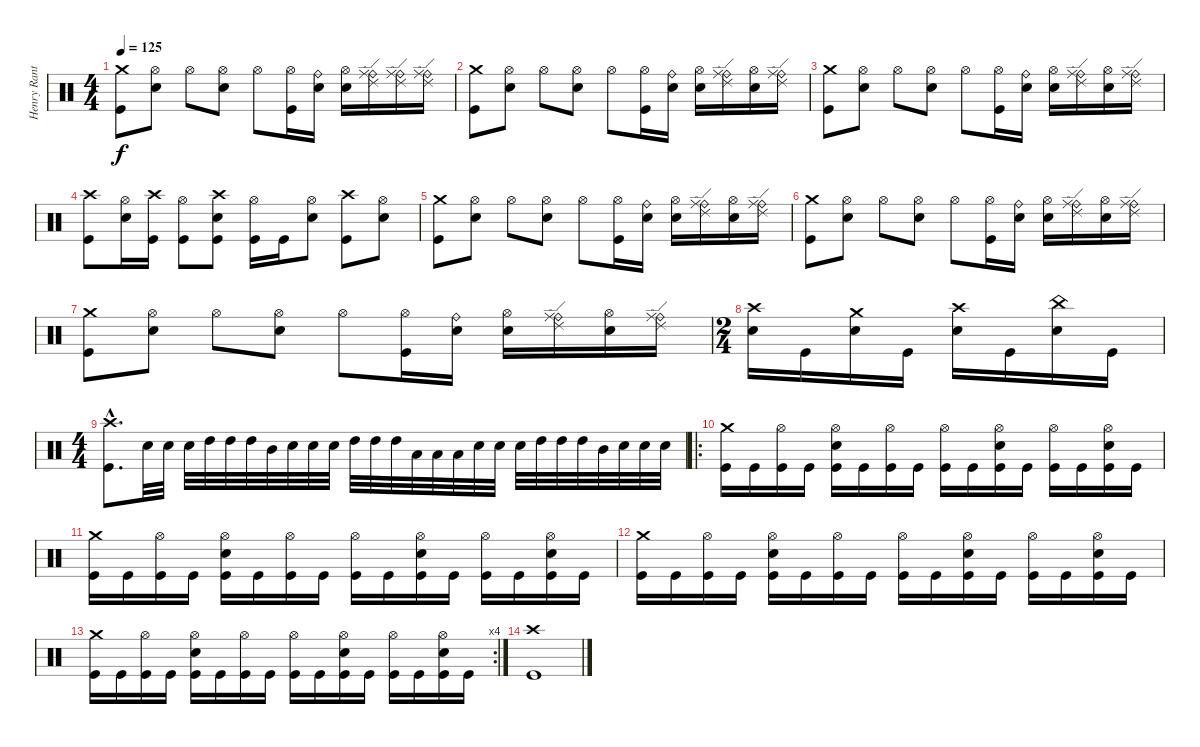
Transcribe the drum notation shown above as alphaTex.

\track ("Henry Ranta" "Henry Rant") {instrument percussion}
\staff {score}
\articulation defaults
\ts (4 4)
\tempo 125
\clef neutral
\ks c
("Crash medium (hit)" "Kick (hit)").8{dy f} ("Hi-Hat (open)" "Electric Snare (hit)").8 "Hi-Hat (open)".8 ("Hi-Hat (open)" "Electric Snare (hit)").8 "Hi-Hat (open)".8 ("Hi-Hat (open)" "Kick (hit)").16 ("Ride (bell)" "Electric Snare (hit)").16 ("Hi-Hat (open)" "Electric Snare (hit)").16 ("Ride (edge) 2" "Ride (bell)" "Ride (middle)").16 ("Ride (edge) 2" "Ride (bell)" "Ride (middle)").16 ("Ride (edge) 2" "Ride (bell)" "Ride (middle)").16 |
("Crash medium (hit)" "Kick (hit)").8 ("Hi-Hat (open)" "Electric Snare (hit)").8 "Hi-Hat (open)".8 ("Hi-Hat (open)" "Electric Snare (hit)").8 "Hi-Hat (open)".8 ("Hi-Hat (open)" "Kick (hit)").16 ("Ride (bell)" "Electric Snare (hit)").16 ("Hi-Hat (open)" "Electric Snare (hit)").16 ("Ride (edge) 2" "Ride (bell)" "Ride (middle)").16 ("Hi-Hat (open)" "Electric Snare (hit)").16 ("Ride (edge) 2" "Ride (bell)" "Ride (middle)").16 |
("Crash medium (hit)" "Kick (hit)").8 ("Hi-Hat (open)" "Electric Snare (hit)").8 "Hi-Hat (open)".8 ("Hi-Hat (open)" "Electric Snare (hit)").8 "Hi-Hat (open)".8 ("Hi-Hat (open)" "Kick (hit)").16 ("Ride (bell)" "Electric Snare (hit)").16 ("Hi-Hat (open)" "Electric Snare (hit)").16 ("Ride (edge) 2" "Ride (bell)" "Ride (middle)").16 ("Hi-Hat (open)" "Electric Snare (hit)").16 ("Ride (edge) 2" "Ride (bell)" "Ride (middle)").16 |
("Crash high (hit)" "Kick (hit)").8 ("Hi-Hat (open)" "Electric Snare (hit)").16 ("Crash high (hit)" "Kick (hit)").16 ("Hi-Hat (open)" "Kick (hit)").8 ("Crash high (hit)" "Electric Snare (hit)" "Kick (hit)").8 ("Hi-Hat (open)" "Kick (hit)").16 "Kick (hit)".16 ("Hi-Hat (open)" "Electric Snare (hit)").8 ("Crash high (hit)" "Kick (hit)").8 ("Hi-Hat (open)" "Electric Snare (hit)").8 |
("Crash medium (hit)" "Kick (hit)").8 ("Hi-Hat (open)" "Electric Snare (hit)").8 "Hi-Hat (open)".8 ("Hi-Hat (open)" "Electric Snare (hit)").8 "Hi-Hat (open)".8 ("Hi-Hat (open)" "Kick (hit)").16 ("Ride (bell)" "Electric Snare (hit)").16 ("Hi-Hat (open)" "Electric Snare (hit)").16 ("Ride (edge) 2" "Ride (bell)" "Ride (middle)").16 ("Hi-Hat (open)" "Electric Snare (hit)").16 ("Ride (edge) 2" "Ride (bell)" "Ride (middle)").16 |
("Crash medium (hit)" "Kick (hit)").8 ("Hi-Hat (open)" "Electric Snare (hit)").8 "Hi-Hat (open)".8 ("Hi-Hat (open)" "Electric Snare (hit)").8 "Hi-Hat (open)".8 ("Hi-Hat (open)" "Kick (hit)").16 ("Ride (bell)" "Electric Snare (hit)").16 ("Hi-Hat (open)" "Electric Snare (hit)").16 ("Ride (edge) 2" "Ride (bell)" "Ride (middle)").16 ("Hi-Hat (open)" "Electric Snare (hit)").16 ("Ride (edge) 2" "Ride (bell)" "Ride (middle)").16 |
("Crash medium (hit)" "Kick (hit)").8 ("Hi-Hat (open)" "Electric Snare (hit)").8 "Hi-Hat (open)".8 ("Hi-Hat (open)" "Electric Snare (hit)").8 "Hi-Hat (open)".8 ("Hi-Hat (open)" "Kick (hit)").16 ("Ride (bell)" "Electric Snare (hit)").16 ("Hi-Hat (open)" "Electric Snare (hit)").16 ("Ride (edge) 2" "Ride (bell)" "Ride (middle)").16 ("Hi-Hat (open)" "Electric Snare (hit)").16 ("Ride (edge) 2" "Ride (bell)" "Ride (middle)").16 |
\ts (2 4)
("Crash high (hit)" "Electric Snare (hit)").16 "Kick (hit)".16 ("Crash medium (hit)" "Electric Snare (hit)").16 "Kick (hit)".16 ("Crash high (hit)" "Electric Snare (hit)").16 "Kick (hit)".16 ("China (hit)" "Electric Snare (hit)").16 "Kick (hit)".16 |
\ts (4 4)
("Crash high (hit)"{hac} "Kick (hit)"{hac}).8{d} "Electric Snare (hit)".32 "Electric Snare (hit)".32 "Electric Snare (hit)".32 "High Tom (hit)".32 "High Tom (hit)".32 "High Tom (hit)".32 "Mid Tom (hit)".32 "Electric Snare (hit)".32 "Electric Snare (hit)".32 "Electric Snare (hit)".32 "High Tom (hit)".32 "High Tom (hit)".32 "High Tom (hit)".32 "Low Tom (hit)".32 "Low Tom (hit)".32 "Low Tom (hit)".32 "Electric Snare (hit)".32 "Electric Snare (hit)".32 "Electric Snare (hit)".32 "High Tom (hit)".32 "High Tom (hit)".32 "High Tom (hit)".32 "Mid Tom (hit)".32 "Electric Snare (hit)".32 "Electric Snare (hit)".32 "Electric Snare (hit)".32 |
\ro
("Crash medium (hit)" "Kick (hit)").16 "Kick (hit)".16 ("Hi-Hat (open)" "Kick (hit)").16 "Kick (hit)".16 ("Hi-Hat (open)" "Electric Snare (hit)" "Kick (hit)").16 "Kick (hit)".16 ("Hi-Hat (open)" "Kick (hit)").16 "Kick (hit)".16 ("Hi-Hat (open)" "Kick (hit)").16 "Kick (hit)".16 ("Hi-Hat (open)" "Electric Snare (hit)" "Kick (hit)").16 "Kick (hit)".16 ("Hi-Hat (open)" "Kick (hit)").16 "Kick (hit)".16 ("Hi-Hat (open)" "Electric Snare (hit)" "Kick (hit)").16 "Kick (hit)".16 |
("Crash medium (hit)" "Kick (hit)").16 "Kick (hit)".16 ("Hi-Hat (open)" "Kick (hit)").16 "Kick (hit)".16 ("Hi-Hat (open)" "Electric Snare (hit)" "Kick (hit)").16 "Kick (hit)".16 ("Hi-Hat (open)" "Kick (hit)").16 "Kick (hit)".16 ("Hi-Hat (open)" "Kick (hit)").16 "Kick (hit)".16 ("Hi-Hat (open)" "Electric Snare (hit)" "Kick (hit)").16 "Kick (hit)".16 ("Hi-Hat (open)" "Kick (hit)").16 "Kick (hit)".16 ("Hi-Hat (open)" "Electric Snare (hit)" "Kick (hit)").16 "Kick (hit)".16 |
("Crash medium (hit)" "Kick (hit)").16 "Kick (hit)".16 ("Hi-Hat (open)" "Kick (hit)").16 "Kick (hit)".16 ("Hi-Hat (open)" "Electric Snare (hit)" "Kick (hit)").16 "Kick (hit)".16 ("Hi-Hat (open)" "Kick (hit)").16 "Kick (hit)".16 ("Hi-Hat (open)" "Kick (hit)").16 "Kick (hit)".16 ("Hi-Hat (open)" "Electric Snare (hit)" "Kick (hit)").16 "Kick (hit)".16 ("Hi-Hat (open)" "Kick (hit)").16 "Kick (hit)".16 ("Hi-Hat (open)" "Electric Snare (hit)" "Kick (hit)").16 "Kick (hit)".16 |
\rc 4
("Crash medium (hit)" "Kick (hit)").16 "Kick (hit)".16 ("Hi-Hat (open)" "Kick (hit)").16 "Kick (hit)".16 ("Hi-Hat (open)" "Electric Snare (hit)" "Kick (hit)").16 "Kick (hit)".16 ("Hi-Hat (open)" "Kick (hit)").16 "Kick (hit)".16 ("Hi-Hat (open)" "Kick (hit)").16 "Kick (hit)".16 ("Hi-Hat (open)" "Electric Snare (hit)" "Kick (hit)").16 "Kick (hit)".16 ("Hi-Hat (open)" "Kick (hit)").16 "Kick (hit)".16 ("Hi-Hat (open)" "Electric Snare (hit)" "Kick (hit)").16 "Kick (hit)".16 |
("Crash high (hit)" "Kick (hit)").1
